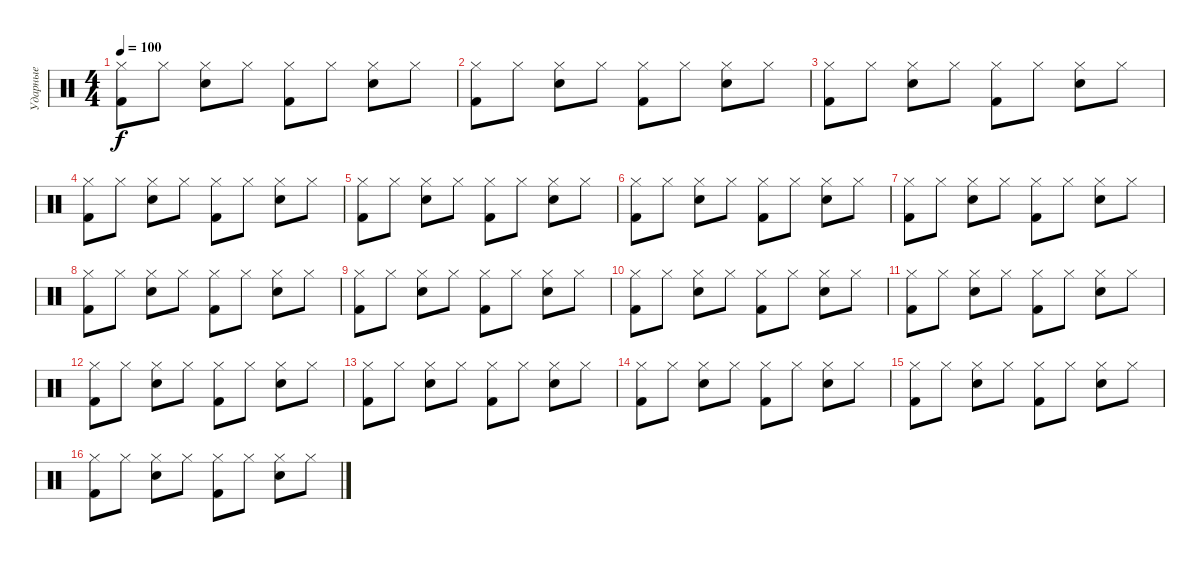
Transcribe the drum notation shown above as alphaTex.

\track ("Ударные" "Ударные") {instrument percussion}
\staff {score}
\articulation defaults
\ts (4 4)
\tempo 100
\clef neutral
\ks c
("Hi-Hat (closed)" "Kick (hit) 2").8{dy f} "Hi-Hat (closed)".8 ("Electric Snare (hit)" "Hi-Hat (closed)").8 "Hi-Hat (closed)".8 ("Hi-Hat (closed)" "Kick (hit) 2").8 "Hi-Hat (closed)".8 ("Electric Snare (hit)" "Hi-Hat (closed)").8 "Hi-Hat (closed)".8 |
("Hi-Hat (closed)" "Kick (hit) 2").8 "Hi-Hat (closed)".8 ("Electric Snare (hit)" "Hi-Hat (closed)").8 "Hi-Hat (closed)".8 ("Hi-Hat (closed)" "Kick (hit) 2").8 "Hi-Hat (closed)".8 ("Electric Snare (hit)" "Hi-Hat (closed)").8 "Hi-Hat (closed)".8 |
("Hi-Hat (closed)" "Kick (hit) 2").8 "Hi-Hat (closed)".8 ("Electric Snare (hit)" "Hi-Hat (closed)").8 "Hi-Hat (closed)".8 ("Hi-Hat (closed)" "Kick (hit) 2").8 "Hi-Hat (closed)".8 ("Electric Snare (hit)" "Hi-Hat (closed)").8 "Hi-Hat (closed)".8 |
("Hi-Hat (closed)" "Kick (hit) 2").8 "Hi-Hat (closed)".8 ("Electric Snare (hit)" "Hi-Hat (closed)").8 "Hi-Hat (closed)".8 ("Hi-Hat (closed)" "Kick (hit) 2").8 "Hi-Hat (closed)".8 ("Electric Snare (hit)" "Hi-Hat (closed)").8 "Hi-Hat (closed)".8 |
("Hi-Hat (closed)" "Kick (hit) 2").8 "Hi-Hat (closed)".8 ("Electric Snare (hit)" "Hi-Hat (closed)").8 "Hi-Hat (closed)".8 ("Hi-Hat (closed)" "Kick (hit) 2").8 "Hi-Hat (closed)".8 ("Electric Snare (hit)" "Hi-Hat (closed)").8 "Hi-Hat (closed)".8 |
("Hi-Hat (closed)" "Kick (hit) 2").8 "Hi-Hat (closed)".8 ("Electric Snare (hit)" "Hi-Hat (closed)").8 "Hi-Hat (closed)".8 ("Hi-Hat (closed)" "Kick (hit) 2").8 "Hi-Hat (closed)".8 ("Electric Snare (hit)" "Hi-Hat (closed)").8 "Hi-Hat (closed)".8 |
("Hi-Hat (closed)" "Kick (hit) 2").8 "Hi-Hat (closed)".8 ("Electric Snare (hit)" "Hi-Hat (closed)").8 "Hi-Hat (closed)".8 ("Hi-Hat (closed)" "Kick (hit) 2").8 "Hi-Hat (closed)".8 ("Electric Snare (hit)" "Hi-Hat (closed)").8 "Hi-Hat (closed)".8 |
("Hi-Hat (closed)" "Kick (hit) 2").8 "Hi-Hat (closed)".8 ("Electric Snare (hit)" "Hi-Hat (closed)").8 "Hi-Hat (closed)".8 ("Hi-Hat (closed)" "Kick (hit) 2").8 "Hi-Hat (closed)".8 ("Electric Snare (hit)" "Hi-Hat (closed)").8 "Hi-Hat (closed)".8 |
("Hi-Hat (closed)" "Kick (hit) 2").8 "Hi-Hat (closed)".8 ("Electric Snare (hit)" "Hi-Hat (closed)").8 "Hi-Hat (closed)".8 ("Hi-Hat (closed)" "Kick (hit) 2").8 "Hi-Hat (closed)".8 ("Electric Snare (hit)" "Hi-Hat (closed)").8 "Hi-Hat (closed)".8 |
("Hi-Hat (closed)" "Kick (hit) 2").8 "Hi-Hat (closed)".8 ("Electric Snare (hit)" "Hi-Hat (closed)").8 "Hi-Hat (closed)".8 ("Hi-Hat (closed)" "Kick (hit) 2").8 "Hi-Hat (closed)".8 ("Electric Snare (hit)" "Hi-Hat (closed)").8 "Hi-Hat (closed)".8 |
("Hi-Hat (closed)" "Kick (hit) 2").8 "Hi-Hat (closed)".8 ("Electric Snare (hit)" "Hi-Hat (closed)").8 "Hi-Hat (closed)".8 ("Hi-Hat (closed)" "Kick (hit) 2").8 "Hi-Hat (closed)".8 ("Electric Snare (hit)" "Hi-Hat (closed)").8 "Hi-Hat (closed)".8 |
("Hi-Hat (closed)" "Kick (hit) 2").8 "Hi-Hat (closed)".8 ("Electric Snare (hit)" "Hi-Hat (closed)").8 "Hi-Hat (closed)".8 ("Hi-Hat (closed)" "Kick (hit) 2").8 "Hi-Hat (closed)".8 ("Electric Snare (hit)" "Hi-Hat (closed)").8 "Hi-Hat (closed)".8 |
("Hi-Hat (closed)" "Kick (hit) 2").8 "Hi-Hat (closed)".8 ("Electric Snare (hit)" "Hi-Hat (closed)").8 "Hi-Hat (closed)".8 ("Hi-Hat (closed)" "Kick (hit) 2").8 "Hi-Hat (closed)".8 ("Electric Snare (hit)" "Hi-Hat (closed)").8 "Hi-Hat (closed)".8 |
("Hi-Hat (closed)" "Kick (hit) 2").8 "Hi-Hat (closed)".8 ("Electric Snare (hit)" "Hi-Hat (closed)").8 "Hi-Hat (closed)".8 ("Hi-Hat (closed)" "Kick (hit) 2").8 "Hi-Hat (closed)".8 ("Electric Snare (hit)" "Hi-Hat (closed)").8 "Hi-Hat (closed)".8 |
("Hi-Hat (closed)" "Kick (hit) 2").8 "Hi-Hat (closed)".8 ("Electric Snare (hit)" "Hi-Hat (closed)").8 "Hi-Hat (closed)".8 ("Hi-Hat (closed)" "Kick (hit) 2").8 "Hi-Hat (closed)".8 ("Electric Snare (hit)" "Hi-Hat (closed)").8 "Hi-Hat (closed)".8 |
("Hi-Hat (closed)" "Kick (hit) 2").8 "Hi-Hat (closed)".8 ("Electric Snare (hit)" "Hi-Hat (closed)").8 "Hi-Hat (closed)".8 ("Hi-Hat (closed)" "Kick (hit) 2").8 "Hi-Hat (closed)".8 ("Electric Snare (hit)" "Hi-Hat (closed)").8 "Hi-Hat (closed)".8
